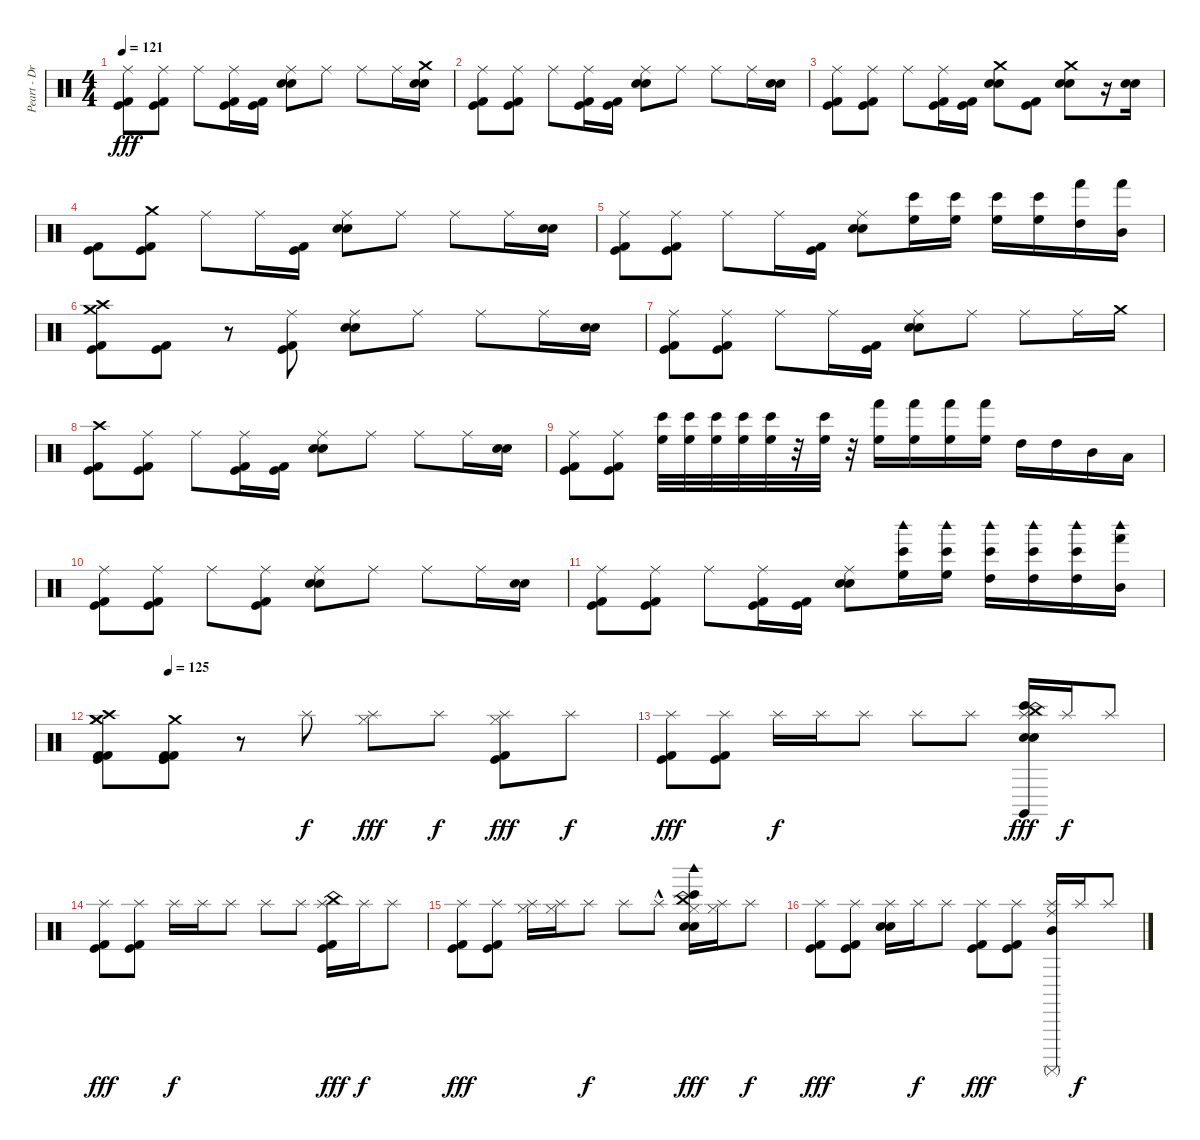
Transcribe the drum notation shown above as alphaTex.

\track ("Peart - Drums" "Peart - Dr") {instrument percussion}
\staff {score}
\articulation defaults
\ts (4 4)
\tempo 121
\clef neutral
\ks c
("Kick (hit) 2" "Kick (hit)" "Ride (middle)").8{dy fff} ("Kick (hit) 2" "Kick (hit)" "Ride (middle)").8 "Ride (middle)".8 ("Ride (middle)" "Kick (hit) 2" "Kick (hit)").16 ("Kick (hit) 2" "Kick (hit)").16 ("Ride (middle)" "Snare (hit) 2" "Electric Snare (hit)").8 "Ride (middle)".8 "Ride (middle)".8 "Ride (middle)".16 ("Electric Snare (hit)" "Snare (hit) 2" "Crash medium (hit)").16 |
("Kick (hit)" "Kick (hit) 2" "Ride (middle)").8 ("Kick (hit) 2" "Kick (hit)" "Ride (middle)").8 "Ride (middle)".8 ("Ride (middle)" "Kick (hit) 2" "Kick (hit)").16 ("Kick (hit) 2" "Kick (hit)").16 ("Ride (middle)" "Snare (hit) 2" "Electric Snare (hit)").8 "Ride (middle)".8 "Ride (middle)".8 "Ride (middle)".16 ("Electric Snare (hit)" "Snare (hit) 2").16 |
("Kick (hit) 2" "Kick (hit)" "Ride (middle)").8 ("Kick (hit) 2" "Kick (hit)" "Ride (middle)").8 "Ride (middle)".8 ("Ride (middle)" "Kick (hit)" "Kick (hit) 2").16 ("Kick (hit)" "Kick (hit) 2").16 ("Crash medium (hit)" "Snare (hit) 2" "Electric Snare (hit)").8 ("Kick (hit) 2" "Kick (hit)").8 ("Crash medium (hit)" "Electric Snare (hit)" "Snare (hit) 2").8 r.16 ("Electric Snare (hit)" "Snare (hit) 2").16 |
("Kick (hit) 2" "Kick (hit)").8 ("Kick (hit) 2" "Kick (hit)" "Crash medium (hit)").8 "Ride (middle)".8 "Ride (middle)".16 ("Kick (hit) 2" "Kick (hit)").16 ("Ride (middle)" "Electric Snare (hit)" "Snare (hit) 2").8 "Ride (middle)".8 "Ride (middle)".8 "Ride (middle)".16 ("Electric Snare (hit)" "Snare (hit) 2").16 |
("Kick (hit) 2" "Kick (hit)" "Ride (middle)").8 ("Kick (hit) 2" "Kick (hit)" "Ride (middle)").8 "Ride (middle)".8 "Ride (middle)".16 ("Kick (hit) 2" "Kick (hit)").16 ("Snare (hit) 2" "Electric Snare (hit)" "Ride (middle)").8 ("Bongo High (hit)" "High Floor Tom (hit)").16 ("Bongo High (hit)" "High Floor Tom (hit)").16 ("Bongo High (hit)" "High Floor Tom (hit)").16 ("Bongo High (hit)" "High Floor Tom (hit)").16 ("Hand (hit)" "High Tom (hit)").16 ("Mid Tom (hit)" "Hand (hit)").16 |
("Kick (hit) 2" "Kick (hit)" "Crash high (hit)" "Crash medium (hit)").8 ("Kick (hit) 2" "Kick (hit)").8 r.8 ("Kick (hit) 2" "Kick (hit)" "Ride (middle)").8 ("Snare (hit) 2" "Electric Snare (hit)" "Ride (middle)").8 "Ride (middle)".8 "Ride (middle)".8 "Ride (middle)".16 ("Electric Snare (hit)" "Snare (hit) 2").16 |
("Kick (hit) 2" "Kick (hit)" "Ride (middle)").8 ("Kick (hit) 2" "Kick (hit)" "Ride (middle)").8 "Ride (middle)".8 "Ride (middle)".16 ("Kick (hit) 2" "Kick (hit)").16 ("Electric Snare (hit)" "Snare (hit) 2" "Ride (middle)").8 "Ride (middle)".8 "Ride (middle)".8 "Ride (middle)".16 "Crash medium (hit)".16 |
("Crash high (hit)" "Kick (hit) 2" "Kick (hit)").8 ("Kick (hit) 2" "Kick (hit)" "Ride (middle)").8 "Ride (middle)".8 ("Kick (hit) 2" "Kick (hit)" "Ride (middle)").16 ("Kick (hit) 2" "Kick (hit)").16 ("Snare (hit) 2" "Electric Snare (hit)" "Ride (middle)").8 "Ride (middle)".8 "Ride (middle)".8 "Ride (middle)".16 ("Electric Snare (hit)" "Snare (hit) 2").16 |
("Kick (hit) 2" "Kick (hit)" "Ride (middle)").8 ("Kick (hit) 2" "Kick (hit)" "Ride (middle)").8 ("High Floor Tom (hit)" "Bongo High (hit)").32 ("High Floor Tom (hit)" "Bongo High (hit)").32 ("High Floor Tom (hit)" "Bongo High (hit)").32 ("High Floor Tom (hit)" "Bongo High (hit)").32 ("High Floor Tom (hit)" "Bongo High (hit)").32 r.32 ("High Floor Tom (hit)" "Bongo High (hit)").32 r.32 ("High Floor Tom (hit)" "Hand (hit)").16 ("High Floor Tom (hit)" "Hand (hit)").16 ("Hand (hit)" "High Floor Tom (hit)").16 ("Hand (hit)" "High Floor Tom (hit)").16 "High Tom (hit)".16 "High Tom (hit)".16 "Mid Tom (hit)".16 "Low Tom (hit)".16 |
("Kick (hit) 2" "Kick (hit)" "Ride (middle)").8 ("Kick (hit) 2" "Kick (hit)" "Ride (middle)").8 "Ride (middle)".8 ("Kick (hit)" "Kick (hit) 2" "Ride (middle)").8 ("Snare (hit) 2" "Electric Snare (hit)" "Ride (middle)").8 "Ride (middle)".8 "Ride (middle)".8 "Ride (middle)".16 ("Electric Snare (hit)" "Snare (hit) 2").16 |
("Kick (hit)" "Kick (hit) 2" "Ride (middle)").8 ("Kick (hit) 2" "Kick (hit)" "Ride (middle)").8 "Ride (middle)".8 ("Kick (hit) 2" "Kick (hit)" "Ride (middle)").16 ("Kick (hit)" "Kick (hit) 2").16 ("Snare (hit) 2" "Electric Snare (hit)" "Ride (middle)").8 ("High Floor Tom (hit)" "Bongo High (hit)" "Woodblock high (hit)").16 ("High Floor Tom (hit)" "Bongo High (hit)" "Woodblock high (hit)").16 ("Bongo High (hit)" "High Tom (hit)" "Woodblock high (hit)").16 ("Bongo High (hit)" "High Tom (hit)" "Woodblock high (hit)").16 ("Bongo High (hit)" "High Tom (hit)" "Woodblock high (hit)").16 ("Hand (hit)" "Mid Tom (hit)" "Woodblock high (hit)").16 |
\tempo (125 0.125)
("Crash high (hit)" "Crash medium (hit)" "Kick (hit) 2" "Kick (hit)" "Crash medium (hit)" "Kick (hit) 2").8 ("Kick (hit) 2" "Kick (hit)" "Kick (hit)" "Kick (hit) 2" "Crash medium (hit)").8 r.8 "Splash (hit)".8{dy f} ("Hi-Hat (closed)" "Splash (hit)").8{dy fff} "Splash (hit)".8{dy f} ("Kick (hit) 2" "Kick (hit)" "Hi-Hat (closed)" "Splash (hit)").8{dy fff} "Splash (hit)".8{dy f} |
("Kick (hit) 2" "Kick (hit)" "Splash (hit)").8{dy fff} ("Kick (hit) 2" "Kick (hit)" "Splash (hit)").8 "Splash (hit)".16{dy f} "Splash (hit)".16 "Splash (hit)".8 "Splash (hit)".8 "Splash (hit)".8 ("Bongo High (hit)" "Electric Snare (hit)" "China (hit)" "Claves (hit)" "Snare (hit) 2" "Splash (hit)").16{dy fff} "Splash (hit)".16{dy f} "Splash (hit)".8 |
("Kick (hit) 2" "Kick (hit)" "Splash (hit)").8{dy fff} ("Kick (hit) 2" "Kick (hit)" "Splash (hit)").8 "Splash (hit)".16{dy f} "Splash (hit)".16 "Splash (hit)".8 "Splash (hit)".8 "Splash (hit)".8 ("Kick (hit)" "Kick (hit) 2" "China (hit)" "Splash (hit)").16{dy fff} "Splash (hit)".16{dy f} "Splash (hit)".8 |
("Kick (hit) 2" "Kick (hit)" "Splash (hit)").8{dy fff} ("Kick (hit) 2" "Kick (hit)" "Splash (hit)").8 ("Hi-Hat (closed)" "Splash (hit)").16 ("Hi-Hat (closed)" "Splash (hit)").16 "Splash (hit)".8{dy f} "Splash (hit)".8 "Splash (hit)"{hac}.8 ("Hi-Hat (closed)" "Electric Snare (hit)" "China (hit)" "Woodblock high (hit)" "Bongo High (hit)" "Snare (hit) 2").16{dy fff} ("Hi-Hat (closed)" "Splash (hit)").16 "Splash (hit)".8{dy f} |
("Kick (hit)" "Kick (hit) 2" "Splash (hit)").8{dy fff} ("Kick (hit)" "Kick (hit) 2" "Splash (hit)").8 ("Snare (hit) 2" "Electric Snare (hit)" "Splash (hit)").16 "Splash (hit)".16{dy f} "Splash (hit)".8 ("Kick (hit) 2" "Kick (hit)" "Splash (hit)").8{dy fff} ("Kick (hit) 2" "Kick (hit)" "Splash (hit)").8 ("Mid Tom (hit)" "Surdo (mute)" "Ride (middle)" "Splash (hit)").16 "Splash (hit)".16{dy f} "Splash (hit)".8
